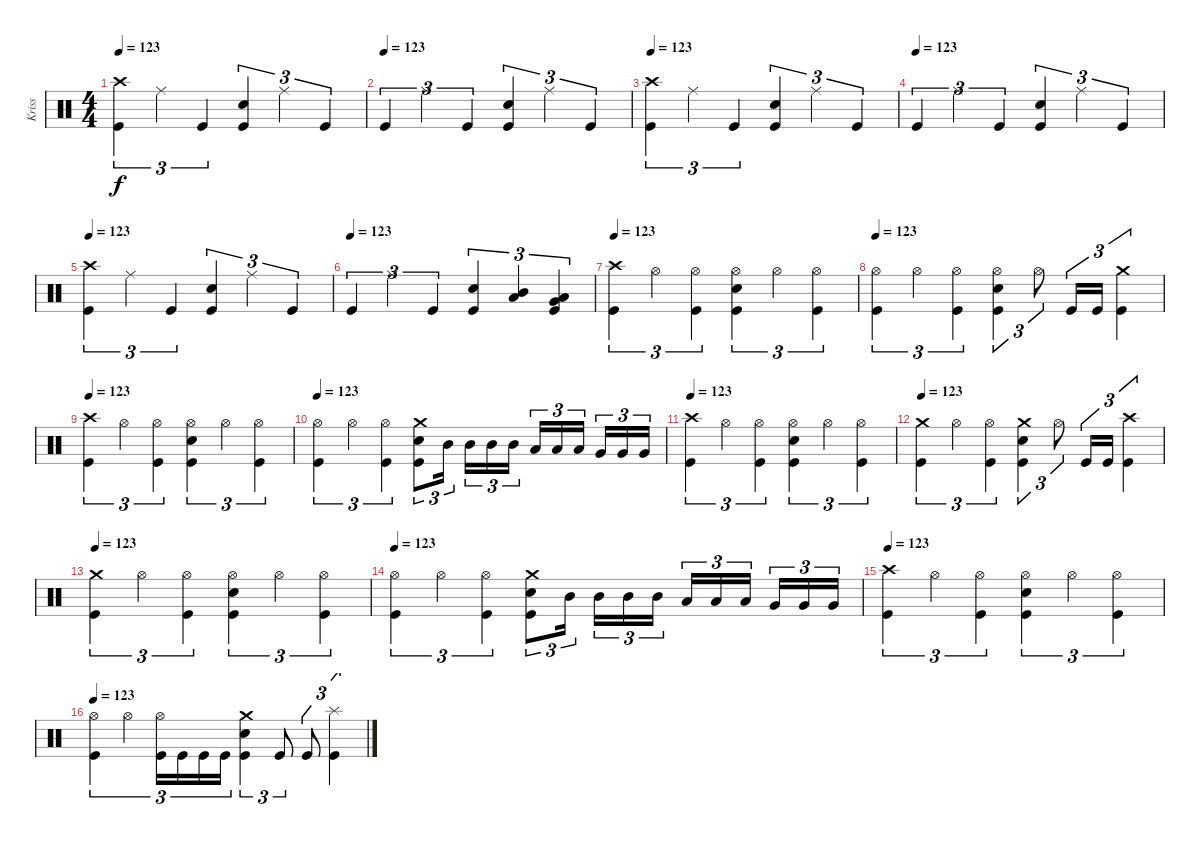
\track ("Kriss" "Kriss") {instrument percussion}
\staff {score}
\articulation defaults
\ts (4 4)
\tempo 123
\clef neutral
\ks c
("Crash high (hit)" "Kick (hit)").4{tu (3 2) dy f} "Ride (middle)".4{tu (3 2)} "Kick (hit)".4{tu (3 2)} ("Snare (hit) 2" "Kick (hit)").4{tu (3 2)} "Ride (middle)".4{tu (3 2)} "Kick (hit)".4{tu (3 2)} |
\tempo (123)
"Kick (hit)".4{tu (3 2)} "Ride (middle)".4{tu (3 2)} "Kick (hit)".4{tu (3 2)} ("Snare (hit) 2" "Kick (hit)").4{tu (3 2)} "Ride (middle)".4{tu (3 2)} "Kick (hit)".4{tu (3 2)} |
\tempo 123
("Crash high (hit)" "Kick (hit)").4{tu (3 2)} "Ride (middle)".4{tu (3 2)} "Kick (hit)".4{tu (3 2)} ("Snare (hit) 2" "Kick (hit)").4{tu (3 2)} "Ride (middle)".4{tu (3 2)} "Kick (hit)".4{tu (3 2)} |
\tempo (123)
"Kick (hit)".4{tu (3 2)} "Ride (middle)".4{tu (3 2)} "Kick (hit)".4{tu (3 2)} ("Snare (hit) 2" "Kick (hit)").4{tu (3 2)} "Ride (middle)".4{tu (3 2)} "Kick (hit)".4{tu (3 2)} |
\tempo 123
("Crash high (hit)" "Kick (hit)").4{tu (3 2)} "Ride (middle)".4{tu (3 2)} "Kick (hit)".4{tu (3 2)} ("Snare (hit) 2" "Kick (hit)").4{tu (3 2)} "Ride (middle)".4{tu (3 2)} "Kick (hit)".4{tu (3 2)} |
\tempo (123)
"Kick (hit)".4{tu (3 2)} "Ride (middle)".4{tu (3 2)} "Kick (hit)".4{tu (3 2)} ("Snare (hit) 2" "Kick (hit)").4{tu (3 2)} ("Mid Tom (hit)" "Low Tom (hit)").4{tu (3 2) bd 60} ("Low Tom (hit)" "Very Low Tom (hit)" "Kick (hit)").4{tu (3 2) bd 60} |
\tempo 123
("Crash high (hit)" "Kick (hit)").4{tu (3 2)} "Hi-Hat (open)".4{tu (3 2)} ("Hi-Hat (open)" "Kick (hit)").4{tu (3 2)} ("Hi-Hat (open)" "Snare (hit) 2" "Kick (hit)").4{tu (3 2)} "Hi-Hat (open)".4{tu (3 2)} ("Hi-Hat (open)" "Kick (hit)").4{tu (3 2)} |
\tempo 123
("Hi-Hat (open)" "Kick (hit)").4{tu (3 2)} "Hi-Hat (open)".4{tu (3 2)} ("Hi-Hat (open)" "Kick (hit)").4{tu (3 2)} ("Hi-Hat (open)" "Snare (hit) 2" "Kick (hit)").4{tu (3 2)} "Hi-Hat (open)".8{tu (3 2)} "Kick (hit)".16{tu (3 2)} "Kick (hit)".16{tu (3 2)} ("Crash medium (hit)" "Kick (hit)").4{tu (3 2)} |
\tempo 123
("Crash high (hit)" "Kick (hit)").4{tu (3 2)} "Hi-Hat (open)".4{tu (3 2)} ("Hi-Hat (open)" "Kick (hit)").4{tu (3 2)} ("Hi-Hat (open)" "Snare (hit) 2" "Kick (hit)").4{tu (3 2)} "Hi-Hat (open)".4{tu (3 2)} ("Hi-Hat (open)" "Kick (hit)").4{tu (3 2)} |
\tempo 123
("Hi-Hat (open)" "Kick (hit)").4{tu (3 2)} "Hi-Hat (open)".4{tu (3 2)} ("Hi-Hat (open)" "Kick (hit)").4{tu (3 2)} ("Crash medium (hit)" "Snare (hit) 2" "Kick (hit)").8{tu (3 2)} "Mid Tom (hit)".16{tu (3 2)} "Mid Tom (hit)".16{tu (3 2)} "Mid Tom (hit)".16{tu (3 2)} "Mid Tom (hit)".16{tu (3 2)} "Low Tom (hit)".16{tu (3 2)} "Low Tom (hit)".16{tu (3 2)} "Low Tom (hit)".16{tu (3 2)} "Very Low Tom (hit)".16{tu (3 2)} "Very Low Tom (hit)".16{tu (3 2)} "Very Low Tom (hit)".16{tu (3 2)} |
\tempo 123
("Crash high (hit)" "Kick (hit)").4{tu (3 2)} "Hi-Hat (open)".4{tu (3 2)} ("Hi-Hat (open)" "Kick (hit)").4{tu (3 2)} ("Hi-Hat (open)" "Snare (hit) 2" "Kick (hit)").4{tu (3 2)} "Hi-Hat (open)".4{tu (3 2)} ("Hi-Hat (open)" "Kick (hit)").4{tu (3 2)} |
\tempo 123
("Crash medium (hit)" "Kick (hit)").4{tu (3 2)} "Hi-Hat (open)".4{tu (3 2)} ("Hi-Hat (open)" "Kick (hit)").4{tu (3 2)} ("Crash medium (hit)" "Snare (hit) 2" "Kick (hit)").4{tu (3 2)} "Hi-Hat (open)".8{tu (3 2)} "Kick (hit)".16{tu (3 2)} "Kick (hit)".16{tu (3 2)} ("Crash high (hit)" "Kick (hit)").4{tu (3 2)} |
\tempo 123
("Crash medium (hit)" "Kick (hit)").4{tu (3 2)} "Hi-Hat (open)".4{tu (3 2)} ("Hi-Hat (open)" "Kick (hit)").4{tu (3 2)} ("Hi-Hat (open)" "Snare (hit) 2" "Kick (hit)").4{tu (3 2)} "Hi-Hat (open)".4{tu (3 2)} ("Hi-Hat (open)" "Kick (hit)").4{tu (3 2)} |
\tempo 123
("Hi-Hat (open)" "Kick (hit)").4{tu (3 2)} "Hi-Hat (open)".4{tu (3 2)} ("Hi-Hat (open)" "Kick (hit)").4{tu (3 2)} ("Crash medium (hit)" "Snare (hit) 2" "Kick (hit)").8{tu (3 2)} "Mid Tom (hit)".16{tu (3 2)} "Mid Tom (hit)".16{tu (3 2)} "Mid Tom (hit)".16{tu (3 2)} "Mid Tom (hit)".16{tu (3 2)} "Low Tom (hit)".16{tu (3 2)} "Low Tom (hit)".16{tu (3 2)} "Low Tom (hit)".16{tu (3 2)} "Very Low Tom (hit)".16{tu (3 2)} "Very Low Tom (hit)".16{tu (3 2)} "Very Low Tom (hit)".16{tu (3 2)} |
\tempo 123
("Crash high (hit)" "Kick (hit)").4{tu (3 2)} "Hi-Hat (open)".4{tu (3 2)} ("Hi-Hat (open)" "Kick (hit)").4{tu (3 2)} ("Hi-Hat (open)" "Snare (hit) 2" "Kick (hit)").4{tu (3 2)} "Hi-Hat (open)".4{tu (3 2)} ("Hi-Hat (open)" "Kick (hit)").4{tu (3 2)} |
\tempo 123
("Hi-Hat (open)" "Kick (hit)").4{tu (3 2)} "Hi-Hat (open)".4{tu (3 2)} ("Hi-Hat (open)" "Kick (hit)").16{tu (3 2)} "Kick (hit)".16{tu (3 2)} "Kick (hit)".16{tu (3 2)} "Kick (hit)".16{tu (3 2)} ("Crash medium (hit)" "Snare (hit) 2" "Kick (hit)").4{tu (3 2)} "Kick (hit)".8{tu (3 2)} "Kick (hit)".8{tu (3 2)} ("Splash (hit)" "Kick (hit)").4{tu (3 2)}
